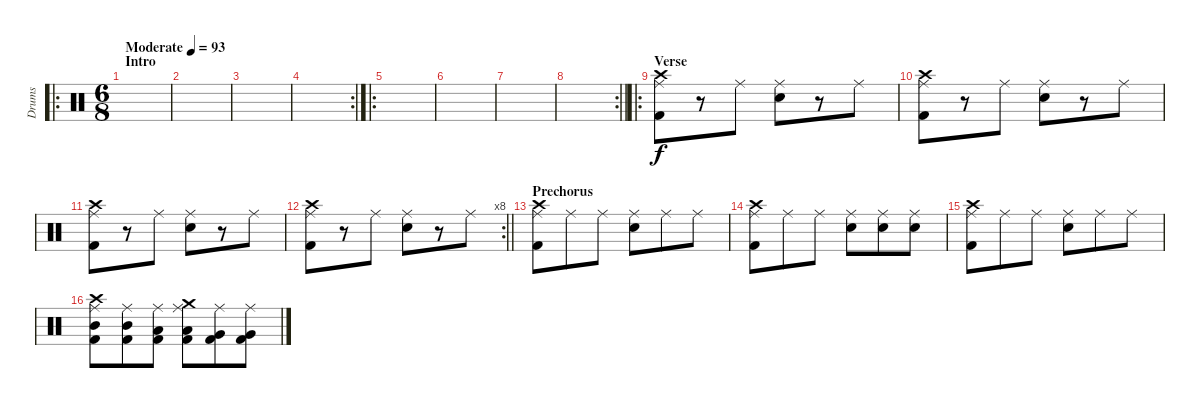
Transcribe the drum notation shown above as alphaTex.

\track ("Drums" "Drums") {instrument percussion}
\staff {score}
\articulation defaults
\ro
\ts (6 8)
\section ("" "Intro")
\tempo (93 "Moderate")
\clef neutral
\ks c
|
|
|
\rc 2
|
\ro
|
|
|
\rc 2
\barLineRight lightlight
|
\ro
\section ("" "Verse")
("Crash high (hit)" "Ride (middle)" "Kick (hit) 2").8 r.8 "Ride (middle)".8 ("Ride (middle)" "Snare (hit) 2").8 r.8 "Ride (middle)".8 |
("Crash high (hit)" "Ride (middle)" "Kick (hit) 2").8 r.8 "Ride (middle)".8 ("Ride (middle)" "Snare (hit) 2").8 r.8 "Ride (middle)".8 |
("Crash high (hit)" "Ride (middle)" "Kick (hit) 2").8 r.8 "Ride (middle)".8 ("Ride (middle)" "Snare (hit) 2").8 r.8 "Ride (middle)".8 |
\rc 8
\barLineRight lightlight
("Crash high (hit)" "Ride (middle)" "Kick (hit) 2").8 r.8 "Ride (middle)".8 ("Ride (middle)" "Snare (hit) 2").8 r.8 "Ride (middle)".8 |
\section ("" "Prechorus")
("Crash high (hit)" "Ride (middle)" "Kick (hit) 2").8 "Ride (middle)".8 "Ride (middle)".8 ("Ride (middle)" "Snare (hit) 2").8 "Ride (middle)".8 "Ride (middle)".8 |
("Crash high (hit)" "Ride (middle)" "Kick (hit) 2").8 "Ride (middle)".8 "Ride (middle)".8 ("Ride (middle)" "Snare (hit) 2").8 ("Ride (middle)" "Snare (hit) 2").8 ("Ride (middle)" "Snare (hit) 2").8 |
("Crash high (hit)" "Ride (middle)" "Kick (hit) 2").8 "Ride (middle)".8 "Ride (middle)".8 ("Ride (middle)" "Snare (hit) 2").8 "Ride (middle)".8 "Ride (middle)".8 |
("Crash high (hit)" "Ride (middle)" "Mid Tom (hit)" "Kick (hit) 2").8 ("Ride (middle)" "Mid Tom (hit)" "Kick (hit) 2").8 ("Ride (middle)" "Low Tom (hit)" "Kick (hit) 2").8 ("Crash medium (hit)" "Ride (middle)" "Low Tom (hit)" "Kick (hit) 2").8 ("Ride (middle)" "Very Low Tom (hit)" "Kick (hit) 2").8 ("Ride (middle)" "Very Low Tom (hit)" "Kick (hit) 2").8
